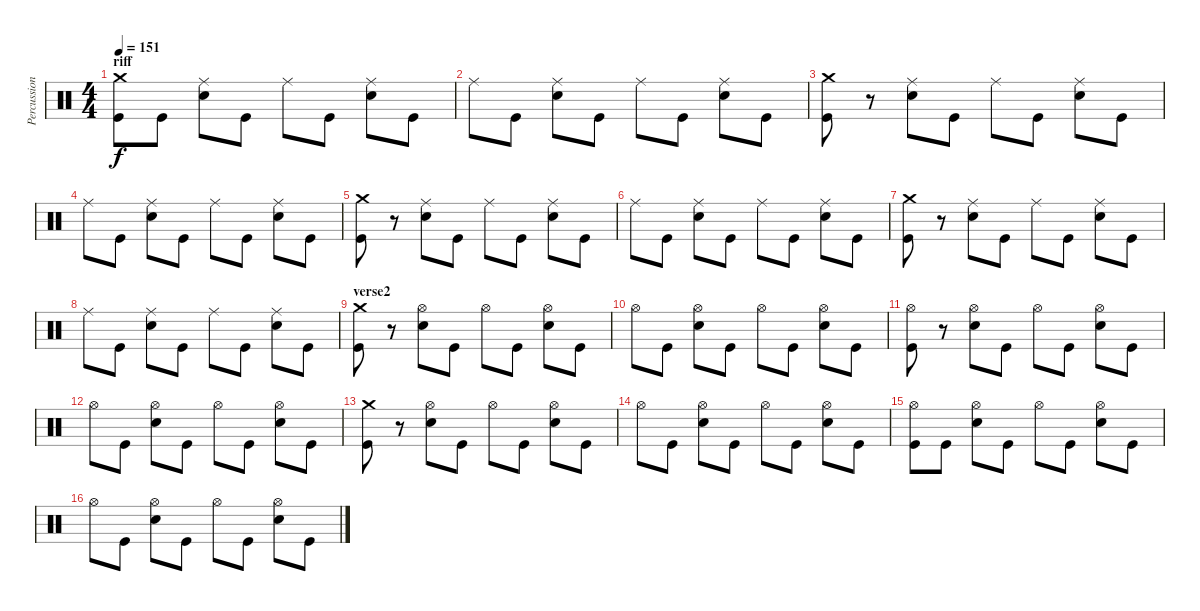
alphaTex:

\track ("Percussion" "Percussion") {instrument percussion}
\staff {score}
\articulation defaults
\ts (4 4)
\section ("" "riff")
\tempo 151
\clef neutral
\ks c
("Crash medium (hit)" "Kick (hit)").8{dy f} "Kick (hit)".8 ("Ride (middle)" "Electric Snare (hit)").8 "Kick (hit)".8 "Ride (middle)".8 "Kick (hit)".8 ("Ride (middle)" "Electric Snare (hit)").8 "Kick (hit)".8 |
"Ride (middle)".8 "Kick (hit)".8 ("Ride (middle)" "Electric Snare (hit)").8 "Kick (hit)".8 "Ride (middle)".8 "Kick (hit)".8 ("Ride (middle)" "Electric Snare (hit)").8 "Kick (hit)".8 |
("Crash medium (hit)" "Kick (hit)").8 r.8 ("Ride (middle)" "Electric Snare (hit)").8 "Kick (hit)".8 "Ride (middle)".8 "Kick (hit)".8 ("Ride (middle)" "Electric Snare (hit)").8 "Kick (hit)".8 |
"Ride (middle)".8 "Kick (hit)".8 ("Ride (middle)" "Electric Snare (hit)").8 "Kick (hit)".8 "Ride (middle)".8 "Kick (hit)".8 ("Ride (middle)" "Electric Snare (hit)").8 "Kick (hit)".8 |
("Crash medium (hit)" "Kick (hit)").8 r.8 ("Ride (middle)" "Electric Snare (hit)").8 "Kick (hit)".8 "Ride (middle)".8 "Kick (hit)".8 ("Ride (middle)" "Electric Snare (hit)").8 "Kick (hit)".8 |
"Ride (middle)".8 "Kick (hit)".8 ("Ride (middle)" "Electric Snare (hit)").8 "Kick (hit)".8 "Ride (middle)".8 "Kick (hit)".8 ("Ride (middle)" "Electric Snare (hit)").8 "Kick (hit)".8 |
("Crash medium (hit)" "Kick (hit)").8 r.8 ("Ride (middle)" "Electric Snare (hit)").8 "Kick (hit)".8 "Ride (middle)".8 "Kick (hit)".8 ("Ride (middle)" "Electric Snare (hit)").8 "Kick (hit)".8 |
"Ride (middle)".8 "Kick (hit)".8 ("Ride (middle)" "Electric Snare (hit)").8 "Kick (hit)".8 "Ride (middle)".8 "Kick (hit)".8 ("Ride (middle)" "Electric Snare (hit)").8 "Kick (hit)".8 |
\section ("" "verse2")
("Crash medium (hit)" "Kick (hit)").8 r.8 ("Hi-Hat (open)" "Electric Snare (hit)").8 "Kick (hit)".8 "Hi-Hat (open)".8 "Kick (hit)".8 ("Hi-Hat (open)" "Electric Snare (hit)").8 "Kick (hit)".8 |
"Hi-Hat (open)".8 "Kick (hit)".8 ("Hi-Hat (open)" "Electric Snare (hit)").8 "Kick (hit)".8 "Hi-Hat (open)".8 "Kick (hit)".8 ("Hi-Hat (open)" "Electric Snare (hit)").8 "Kick (hit)".8 |
("Hi-Hat (open)" "Kick (hit)").8 r.8 ("Hi-Hat (open)" "Electric Snare (hit)").8 "Kick (hit)".8 "Hi-Hat (open)".8 "Kick (hit)".8 ("Hi-Hat (open)" "Electric Snare (hit)").8 "Kick (hit)".8 |
"Hi-Hat (open)".8 "Kick (hit)".8 ("Hi-Hat (open)" "Electric Snare (hit)").8 "Kick (hit)".8 "Hi-Hat (open)".8 "Kick (hit)".8 ("Hi-Hat (open)" "Electric Snare (hit)").8 "Kick (hit)".8 |
("Crash medium (hit)" "Kick (hit)").8 r.8 ("Hi-Hat (open)" "Electric Snare (hit)").8 "Kick (hit)".8 "Hi-Hat (open)".8 "Kick (hit)".8 ("Hi-Hat (open)" "Electric Snare (hit)").8 "Kick (hit)".8 |
"Hi-Hat (open)".8 "Kick (hit)".8 ("Hi-Hat (open)" "Electric Snare (hit)").8 "Kick (hit)".8 "Hi-Hat (open)".8 "Kick (hit)".8 ("Hi-Hat (open)" "Electric Snare (hit)").8 "Kick (hit)".8 |
("Hi-Hat (open)" "Kick (hit)").8 "Kick (hit)".8 ("Hi-Hat (open)" "Electric Snare (hit)").8 "Kick (hit)".8 "Hi-Hat (open)".8 "Kick (hit)".8 ("Hi-Hat (open)" "Electric Snare (hit)").8 "Kick (hit)".8 |
"Hi-Hat (open)".8 "Kick (hit)".8 ("Hi-Hat (open)" "Electric Snare (hit)").8 "Kick (hit)".8 "Hi-Hat (open)".8 "Kick (hit)".8 ("Hi-Hat (open)" "Electric Snare (hit)").8 "Kick (hit)".8
